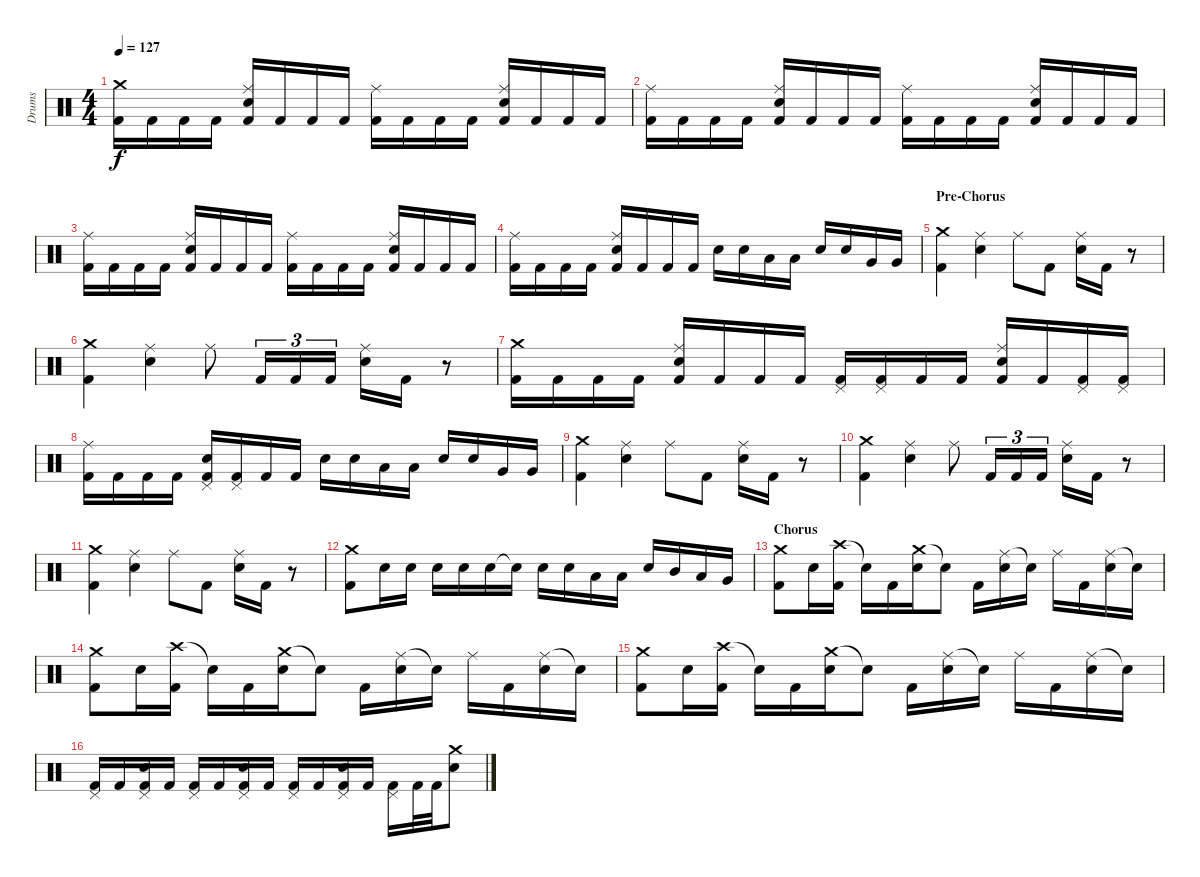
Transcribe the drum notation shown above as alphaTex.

\track ("Drums" "Drums") {instrument percussion}
\staff {score}
\articulation defaults
\ts (4 4)
\tempo 127
\clef neutral
\ks c
("Crash medium (hit)" "Kick (hit) 2").16{dy f} "Kick (hit) 2".16 "Kick (hit) 2".16 "Kick (hit) 2".16 ("Ride (middle)" "Electric Snare (hit)" "Kick (hit) 2").16 "Kick (hit) 2".16 "Kick (hit) 2".16 "Kick (hit) 2".16 ("Ride (middle)" "Kick (hit) 2").16 "Kick (hit) 2".16 "Kick (hit) 2".16 "Kick (hit) 2".16 ("Ride (middle)" "Electric Snare (hit)" "Kick (hit) 2").16 "Kick (hit) 2".16 "Kick (hit) 2".16 "Kick (hit) 2".16 |
("Ride (middle)" "Kick (hit) 2").16 "Kick (hit) 2".16 "Kick (hit) 2".16 "Kick (hit) 2".16 ("Ride (middle)" "Electric Snare (hit)" "Kick (hit) 2").16 "Kick (hit) 2".16 "Kick (hit) 2".16 "Kick (hit) 2".16 ("Ride (middle)" "Kick (hit) 2").16 "Kick (hit) 2".16 "Kick (hit) 2".16 "Kick (hit) 2".16 ("Ride (middle)" "Electric Snare (hit)" "Kick (hit) 2").16 "Kick (hit) 2".16 "Kick (hit) 2".16 "Kick (hit) 2".16 |
("Ride (middle)" "Kick (hit) 2").16 "Kick (hit) 2".16 "Kick (hit) 2".16 "Kick (hit) 2".16 ("Ride (middle)" "Electric Snare (hit)" "Kick (hit) 2").16 "Kick (hit) 2".16 "Kick (hit) 2".16 "Kick (hit) 2".16 ("Ride (middle)" "Kick (hit) 2").16 "Kick (hit) 2".16 "Kick (hit) 2".16 "Kick (hit) 2".16 ("Ride (middle)" "Electric Snare (hit)" "Kick (hit) 2").16 "Kick (hit) 2".16 "Kick (hit) 2".16 "Kick (hit) 2".16 |
("Ride (middle)" "Kick (hit) 2").16 "Kick (hit) 2".16 "Kick (hit) 2".16 "Kick (hit) 2".16 ("Ride (middle)" "Electric Snare (hit)" "Kick (hit) 2").16 "Kick (hit) 2".16 "Kick (hit) 2".16 "Kick (hit) 2".16 "Electric Snare (hit)".16 "Electric Snare (hit)".16 "Low Tom (hit)".16 "Low Tom (hit)".16 "Electric Snare (hit)".16 "Electric Snare (hit)".16 "Very Low Tom (hit)".16 "Very Low Tom (hit)".16 |
\section ("" "Pre-Chorus")
("Crash medium (hit)" "Kick (hit) 2").4 ("Ride (middle)" "Electric Snare (hit)").4 "Ride (middle)".8 "Kick (hit) 2".8 ("Ride (middle)" "Electric Snare (hit)").16 "Kick (hit) 2".16 r.8 |
("Crash medium (hit)" "Kick (hit) 2").4 ("Ride (middle)" "Electric Snare (hit)").4 "Ride (middle)".8 "Kick (hit) 2".16{tu (3 2)} "Kick (hit) 2".16{tu (3 2)} "Kick (hit) 2".16{tu (3 2)} ("Ride (middle)" "Electric Snare (hit)").16 "Kick (hit) 2".16 r.8 |
("Crash medium (hit)" "Kick (hit) 2").16 "Kick (hit) 2".16 "Kick (hit) 2".16 "Kick (hit) 2".16 ("Ride (middle)" "Electric Snare (hit)" "Kick (hit) 2").16 "Kick (hit) 2".16 "Kick (hit) 2".16 "Kick (hit) 2".16 ("Pedal Hi-Hat (hit)" "Kick (hit) 2").16 ("Pedal Hi-Hat (hit)" "Kick (hit) 2").16 "Kick (hit) 2".16 "Kick (hit) 2".16 ("Ride (middle)" "Electric Snare (hit)" "Kick (hit) 2").16 "Kick (hit) 2".16 ("Pedal Hi-Hat (hit)" "Kick (hit) 2").16 ("Pedal Hi-Hat (hit)" "Kick (hit) 2").16 |
("Ride (middle)" "Kick (hit) 2").16 "Kick (hit) 2".16 "Kick (hit) 2".16 "Kick (hit) 2".16 ("Pedal Hi-Hat (hit)" "Electric Snare (hit)" "Kick (hit) 2").16 ("Pedal Hi-Hat (hit)" "Kick (hit) 2").16 "Kick (hit) 2".16 "Kick (hit) 2".16 "Electric Snare (hit)".16 "Electric Snare (hit)".16 "Low Tom (hit)".16 "Low Tom (hit)".16 "Electric Snare (hit)".16 "Electric Snare (hit)".16 "Very Low Tom (hit)".16 "Very Low Tom (hit)".16 |
("Crash medium (hit)" "Kick (hit) 2").4 ("Ride (middle)" "Electric Snare (hit)").4 "Ride (middle)".8 "Kick (hit) 2".8 ("Ride (middle)" "Electric Snare (hit)").16 "Kick (hit) 2".16 r.8 |
("Crash medium (hit)" "Kick (hit) 2").4 ("Ride (middle)" "Electric Snare (hit)").4 "Ride (middle)".8 "Kick (hit) 2".16{tu (3 2)} "Kick (hit) 2".16{tu (3 2)} "Kick (hit) 2".16{tu (3 2)} ("Ride (middle)" "Electric Snare (hit)").16 "Kick (hit) 2".16 r.8 |
("Crash medium (hit)" "Kick (hit) 2").4 ("Ride (middle)" "Electric Snare (hit)").4 "Ride (middle)".8 "Kick (hit) 2".8 ("Ride (middle)" "Electric Snare (hit)").16 "Kick (hit) 2".16 r.8 |
("Crash medium (hit)" "Kick (hit) 2").8 "Electric Snare (hit)".16 "Electric Snare (hit)".16 "Electric Snare (hit)".16 "Electric Snare (hit)".16 "Electric Snare (hit)".16 "Snare (hit)"{t}.16 "Electric Snare (hit)".16 "Electric Snare (hit)".16 "Low Tom (hit)".16 "Low Tom (hit)".16 "Electric Snare (hit)".16 "Mid Tom (hit)".16 "Low Tom (hit)".16 "Very Low Tom (hit)".16 |
\section ("" "Chorus")
("Crash medium (hit)" "Kick (hit) 2").8 "Electric Snare (hit)".16 ("Crash high (hit)" "Kick (hit) 2").16 "Snare (hit)"{t}.16 "Kick (hit) 2".16 ("Crash medium (hit)" "Electric Snare (hit)").16 "Snare (hit)"{t}.8 "Kick (hit) 2".16 ("Ride (middle)" "Electric Snare (hit)").16 "Snare (hit)"{t}.16 "Ride (middle)".16 "Kick (hit) 2".16 ("Ride (middle)" "Electric Snare (hit)").16 "Snare (hit)"{t}.16 |
("Crash medium (hit)" "Kick (hit) 2").8 "Electric Snare (hit)".16 ("Crash high (hit)" "Kick (hit) 2").16 "Snare (hit)"{t}.16 "Kick (hit) 2".16 ("Crash medium (hit)" "Electric Snare (hit)").16 "Snare (hit)"{t}.8 "Kick (hit) 2".16 ("Ride (middle)" "Electric Snare (hit)").16 "Snare (hit)"{t}.16 "Ride (middle)".16 "Kick (hit) 2".16 ("Ride (middle)" "Electric Snare (hit)").16 "Snare (hit)"{t}.16 |
("Crash medium (hit)" "Kick (hit) 2").8 "Electric Snare (hit)".16 ("Crash high (hit)" "Kick (hit) 2").16 "Snare (hit)"{t}.16 "Kick (hit) 2".16 ("Crash medium (hit)" "Electric Snare (hit)").16 "Snare (hit)"{t}.8 "Kick (hit) 2".16 ("Ride (middle)" "Electric Snare (hit)").16 "Snare (hit)"{t}.16 "Ride (middle)".16 "Kick (hit) 2".16 ("Ride (middle)" "Electric Snare (hit)").16 "Snare (hit)"{t}.16 |
("Pedal Hi-Hat (hit)" "Kick (hit) 2").16 "Kick (hit) 2".16 ("Pedal Hi-Hat (hit)" "Electric Snare (hit)" "Kick (hit) 2").16 "Kick (hit) 2".16 ("Pedal Hi-Hat (hit)" "Kick (hit) 2").16 "Kick (hit) 2".16 ("Pedal Hi-Hat (hit)" "Electric Snare (hit)" "Kick (hit) 2").16 "Kick (hit) 2".16 ("Pedal Hi-Hat (hit)" "Kick (hit) 2").16 "Kick (hit) 2".16 ("Pedal Hi-Hat (hit)" "Electric Snare (hit)" "Kick (hit) 2").16 "Kick (hit) 2".16 ("Pedal Hi-Hat (hit)" "Kick (hit) 2").16 "Kick (hit) 2".32 "Kick (hit) 2".32 ("Crash medium (hit)" "Electric Snare (hit)").8
